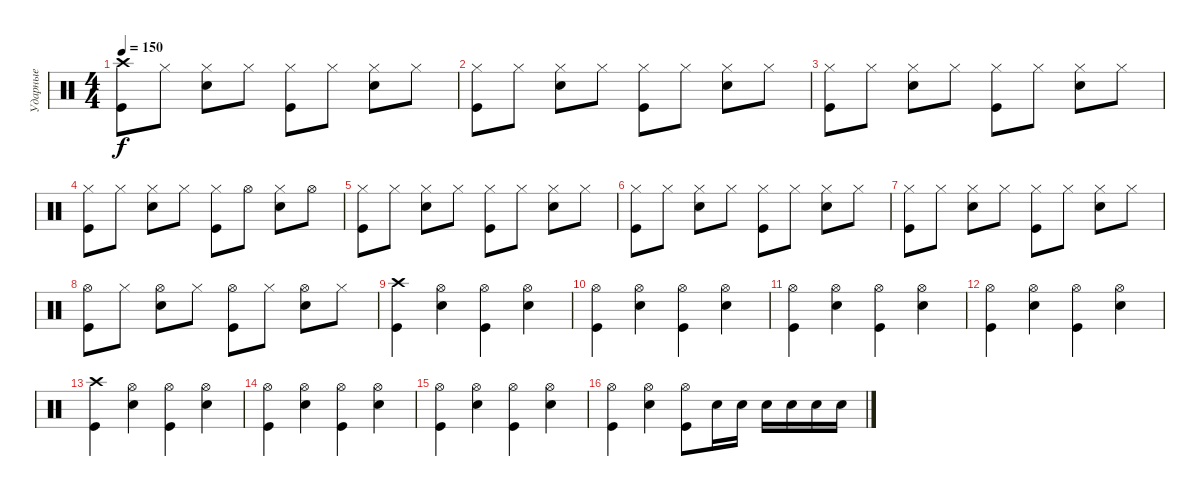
\track ("Ударные" "Ударные") {instrument percussion}
\staff {score}
\articulation defaults
\ts (4 4)
\tempo 150
\clef neutral
\ks c
("Crash high (hit)" "Kick (hit)").8{dy f} "Hi-Hat (closed)".8 ("Hi-Hat (closed)" "Snare (hit) 2").8 "Hi-Hat (closed)".8 ("Hi-Hat (closed)" "Kick (hit)").8 "Hi-Hat (closed)".8 ("Hi-Hat (closed)" "Snare (hit) 2").8 "Hi-Hat (closed)".8 |
("Hi-Hat (closed)" "Kick (hit)").8 "Hi-Hat (closed)".8 ("Hi-Hat (closed)" "Snare (hit) 2").8 "Hi-Hat (closed)".8 ("Hi-Hat (closed)" "Kick (hit)").8 "Hi-Hat (closed)".8 ("Hi-Hat (closed)" "Snare (hit) 2").8 "Hi-Hat (closed)".8 |
("Hi-Hat (closed)" "Kick (hit)").8 "Hi-Hat (closed)".8 ("Hi-Hat (closed)" "Snare (hit) 2").8 "Hi-Hat (closed)".8 ("Hi-Hat (closed)" "Kick (hit)").8 "Hi-Hat (closed)".8 ("Hi-Hat (closed)" "Snare (hit) 2").8 "Hi-Hat (closed)".8 |
("Hi-Hat (closed)" "Kick (hit)").8 "Hi-Hat (closed)".8 ("Hi-Hat (closed)" "Snare (hit) 2").8 "Hi-Hat (closed)".8 ("Hi-Hat (closed)" "Kick (hit)").8 "Hi-Hat (open)".8 ("Hi-Hat (closed)" "Snare (hit) 2").8 "Hi-Hat (open)".8 |
("Hi-Hat (closed)" "Kick (hit)").8 "Hi-Hat (closed)".8 ("Hi-Hat (closed)" "Snare (hit) 2").8 "Hi-Hat (closed)".8 ("Hi-Hat (closed)" "Kick (hit)").8 "Hi-Hat (closed)".8 ("Hi-Hat (closed)" "Snare (hit) 2").8 "Hi-Hat (closed)".8 |
("Hi-Hat (closed)" "Kick (hit)").8 "Hi-Hat (closed)".8 ("Hi-Hat (closed)" "Snare (hit) 2").8 "Hi-Hat (closed)".8 ("Hi-Hat (closed)" "Kick (hit)").8 "Hi-Hat (closed)".8 ("Hi-Hat (closed)" "Snare (hit) 2").8 "Hi-Hat (closed)".8 |
("Hi-Hat (closed)" "Kick (hit)").8 "Hi-Hat (closed)".8 ("Hi-Hat (closed)" "Snare (hit) 2").8 "Hi-Hat (closed)".8 ("Hi-Hat (closed)" "Kick (hit)").8 "Hi-Hat (closed)".8 ("Hi-Hat (closed)" "Snare (hit) 2").8 "Hi-Hat (closed)".8 |
("Hi-Hat (open)" "Kick (hit)").8 "Hi-Hat (closed)".8 ("Hi-Hat (open)" "Snare (hit) 2").8 "Hi-Hat (closed)".8 ("Hi-Hat (open)" "Kick (hit)").8 "Hi-Hat (closed)".8 ("Hi-Hat (open)" "Snare (hit) 2").8 "Hi-Hat (closed)".8 |
("Crash high (hit)" "Kick (hit)").4 ("Hi-Hat (open)" "Snare (hit) 2").4 ("Hi-Hat (open)" "Kick (hit)").4 ("Hi-Hat (open)" "Snare (hit) 2").4 |
("Hi-Hat (open)" "Kick (hit)").4 ("Hi-Hat (open)" "Snare (hit) 2").4 ("Hi-Hat (open)" "Kick (hit)").4 ("Hi-Hat (open)" "Snare (hit) 2").4 |
("Hi-Hat (open)" "Kick (hit)").4 ("Hi-Hat (open)" "Snare (hit) 2").4 ("Hi-Hat (open)" "Kick (hit)").4 ("Hi-Hat (open)" "Snare (hit) 2").4 |
("Hi-Hat (open)" "Kick (hit)").4 ("Hi-Hat (open)" "Snare (hit) 2").4 ("Hi-Hat (open)" "Kick (hit)").4 ("Hi-Hat (open)" "Snare (hit) 2").4 |
("Crash high (hit)" "Kick (hit)").4 ("Hi-Hat (open)" "Snare (hit) 2").4 ("Hi-Hat (open)" "Kick (hit)").4 ("Hi-Hat (open)" "Snare (hit) 2").4 |
("Hi-Hat (open)" "Kick (hit)").4 ("Hi-Hat (open)" "Snare (hit) 2").4 ("Hi-Hat (open)" "Kick (hit)").4 ("Hi-Hat (open)" "Snare (hit) 2").4 |
("Hi-Hat (open)" "Kick (hit)").4 ("Hi-Hat (open)" "Snare (hit) 2").4 ("Hi-Hat (open)" "Kick (hit)").4 ("Hi-Hat (open)" "Snare (hit) 2").4 |
("Hi-Hat (open)" "Kick (hit)").4 ("Hi-Hat (open)" "Snare (hit) 2").4 ("Hi-Hat (open)" "Kick (hit)").8 "Snare (hit) 2".16 "Snare (hit) 2".16 "Snare (hit) 2".16 "Snare (hit) 2".16 "Snare (hit) 2".16 "Snare (hit) 2".16
